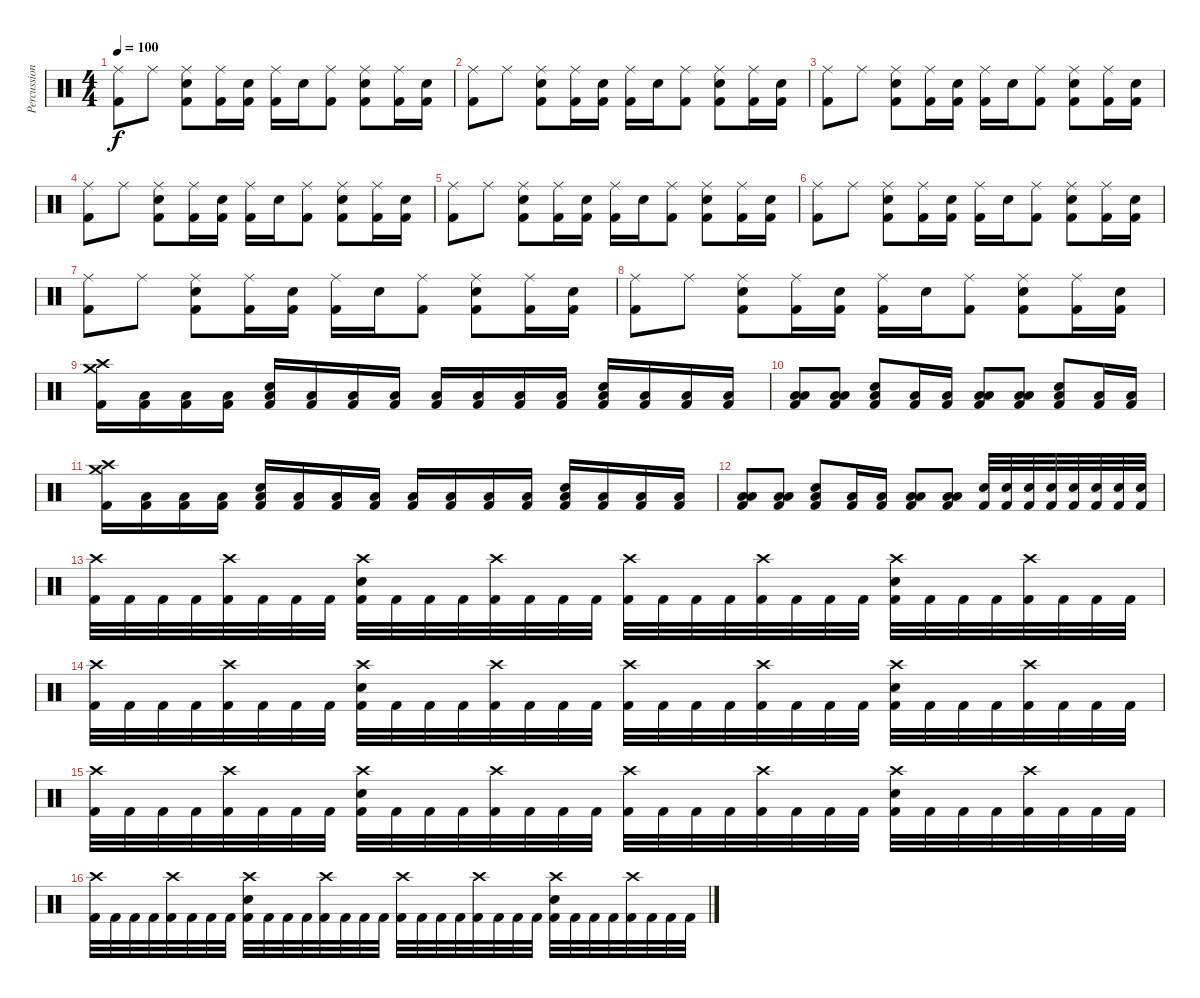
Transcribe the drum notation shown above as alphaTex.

\track ("Percussion" "Percussion") {instrument percussion}
\staff {score}
\articulation defaults
\ts (4 4)
\tempo 100
\clef neutral
\ks c
("Ride (middle)" "Kick (hit) 2").8{dy f} "Ride (middle)".8 ("Electric Snare (hit)" "Ride (middle)" "Kick (hit) 2").8 ("Ride (middle)" "Kick (hit) 2").16 ("Electric Snare (hit)" "Kick (hit) 2").16 ("Ride (middle)" "Kick (hit) 2").16 "Electric Snare (hit)".16 ("Ride (middle)" "Kick (hit) 2").8 ("Electric Snare (hit)" "Ride (middle)" "Kick (hit) 2").8 ("Ride (middle)" "Kick (hit) 2").16 ("Electric Snare (hit)" "Kick (hit) 2").16 |
("Ride (middle)" "Kick (hit) 2").8 "Ride (middle)".8 ("Electric Snare (hit)" "Ride (middle)" "Kick (hit) 2").8 ("Ride (middle)" "Kick (hit) 2").16 ("Electric Snare (hit)" "Kick (hit) 2").16 ("Ride (middle)" "Kick (hit) 2").16 "Electric Snare (hit)".16 ("Ride (middle)" "Kick (hit) 2").8 ("Electric Snare (hit)" "Ride (middle)" "Kick (hit) 2").8 ("Ride (middle)" "Kick (hit) 2").16 ("Electric Snare (hit)" "Kick (hit) 2").16 |
("Ride (middle)" "Kick (hit) 2").8 "Ride (middle)".8 ("Electric Snare (hit)" "Ride (middle)" "Kick (hit) 2").8 ("Ride (middle)" "Kick (hit) 2").16 ("Electric Snare (hit)" "Kick (hit) 2").16 ("Ride (middle)" "Kick (hit) 2").16 "Electric Snare (hit)".16 ("Ride (middle)" "Kick (hit) 2").8 ("Electric Snare (hit)" "Ride (middle)" "Kick (hit) 2").8 ("Ride (middle)" "Kick (hit) 2").16 ("Electric Snare (hit)" "Kick (hit) 2").16 |
("Ride (middle)" "Kick (hit) 2").8 "Ride (middle)".8 ("Electric Snare (hit)" "Ride (middle)" "Kick (hit) 2").8 ("Ride (middle)" "Kick (hit) 2").16 ("Electric Snare (hit)" "Kick (hit) 2").16 ("Ride (middle)" "Kick (hit) 2").16 "Electric Snare (hit)".16 ("Ride (middle)" "Kick (hit) 2").8 ("Electric Snare (hit)" "Ride (middle)" "Kick (hit) 2").8 ("Ride (middle)" "Kick (hit) 2").16 ("Electric Snare (hit)" "Kick (hit) 2").16 |
("Ride (middle)" "Kick (hit) 2").8 "Ride (middle)".8 ("Electric Snare (hit)" "Ride (middle)" "Kick (hit) 2").8 ("Ride (middle)" "Kick (hit) 2").16 ("Electric Snare (hit)" "Kick (hit) 2").16 ("Ride (middle)" "Kick (hit) 2").16 "Electric Snare (hit)".16 ("Ride (middle)" "Kick (hit) 2").8 ("Electric Snare (hit)" "Ride (middle)" "Kick (hit) 2").8 ("Ride (middle)" "Kick (hit) 2").16 ("Electric Snare (hit)" "Kick (hit) 2").16 |
("Ride (middle)" "Kick (hit) 2").8 "Ride (middle)".8 ("Electric Snare (hit)" "Ride (middle)" "Kick (hit) 2").8 ("Ride (middle)" "Kick (hit) 2").16 ("Electric Snare (hit)" "Kick (hit) 2").16 ("Ride (middle)" "Kick (hit) 2").16 "Electric Snare (hit)".16 ("Ride (middle)" "Kick (hit) 2").8 ("Electric Snare (hit)" "Ride (middle)" "Kick (hit) 2").8 ("Ride (middle)" "Kick (hit) 2").16 ("Electric Snare (hit)" "Kick (hit) 2").16 |
("Ride (middle)" "Kick (hit) 2").8 "Ride (middle)".8 ("Electric Snare (hit)" "Ride (middle)" "Kick (hit) 2").8 ("Ride (middle)" "Kick (hit) 2").16 ("Electric Snare (hit)" "Kick (hit) 2").16 ("Ride (middle)" "Kick (hit) 2").16 "Electric Snare (hit)".16 ("Ride (middle)" "Kick (hit) 2").8 ("Electric Snare (hit)" "Ride (middle)" "Kick (hit) 2").8 ("Ride (middle)" "Kick (hit) 2").16 ("Electric Snare (hit)" "Kick (hit) 2").16 |
("Ride (middle)" "Kick (hit) 2").8 "Ride (middle)".8 ("Electric Snare (hit)" "Ride (middle)" "Kick (hit) 2").8 ("Ride (middle)" "Kick (hit) 2").16 ("Electric Snare (hit)" "Kick (hit) 2").16 ("Ride (middle)" "Kick (hit) 2").16 "Electric Snare (hit)".16 ("Ride (middle)" "Kick (hit) 2").8 ("Electric Snare (hit)" "Ride (middle)" "Kick (hit) 2").8 ("Ride (middle)" "Kick (hit) 2").16 ("Electric Snare (hit)" "Kick (hit) 2").16 |
("Crash medium (hit)" "Crash high (hit)" "Kick (hit) 2").16 ("Low Floor Tom (hit)" "Kick (hit) 2").16 ("Low Floor Tom (hit)" "Kick (hit) 2").16 ("Low Floor Tom (hit)" "Kick (hit) 2").16 ("Electric Snare (hit)" "Low Floor Tom (hit)" "Kick (hit) 2").16 ("Low Floor Tom (hit)" "Kick (hit) 2").16 ("Low Floor Tom (hit)" "Kick (hit) 2").16 ("Low Floor Tom (hit)" "Kick (hit) 2").16 ("Low Floor Tom (hit)" "Kick (hit) 2").16 ("Low Floor Tom (hit)" "Kick (hit) 2").16 ("Low Floor Tom (hit)" "Kick (hit) 2").16 ("Low Floor Tom (hit)" "Kick (hit) 2").16 ("Electric Snare (hit)" "Low Floor Tom (hit)" "Kick (hit) 2").16 ("Low Floor Tom (hit)" "Kick (hit) 2").16 ("Low Floor Tom (hit)" "Kick (hit) 2").16 ("Low Floor Tom (hit)" "Kick (hit) 2").16 |
("Low Floor Tom (hit)" "Low Floor Tom (hit)" "Kick (hit) 2").8 ("Low Floor Tom (hit)" "Low Floor Tom (hit)" "Kick (hit) 2").8 ("Electric Snare (hit)" "Low Floor Tom (hit)" "Kick (hit) 2").8 ("Low Floor Tom (hit)" "Kick (hit) 2").16 ("Low Floor Tom (hit)" "Kick (hit) 2").16 ("Low Floor Tom (hit)" "Low Floor Tom (hit)" "Kick (hit) 2").8 ("Low Floor Tom (hit)" "Low Floor Tom (hit)" "Kick (hit) 2").8 ("Electric Snare (hit)" "Low Floor Tom (hit)" "Kick (hit) 2").8 ("Low Floor Tom (hit)" "Kick (hit) 2").16 ("Low Floor Tom (hit)" "Kick (hit) 2").16 |
("Crash medium (hit)" "Crash high (hit)" "Kick (hit) 2").16 ("Low Floor Tom (hit)" "Kick (hit) 2").16 ("Low Floor Tom (hit)" "Kick (hit) 2").16 ("Low Floor Tom (hit)" "Kick (hit) 2").16 ("Electric Snare (hit)" "Low Floor Tom (hit)" "Kick (hit) 2").16 ("Low Floor Tom (hit)" "Kick (hit) 2").16 ("Low Floor Tom (hit)" "Kick (hit) 2").16 ("Low Floor Tom (hit)" "Kick (hit) 2").16 ("Low Floor Tom (hit)" "Kick (hit) 2").16 ("Low Floor Tom (hit)" "Kick (hit) 2").16 ("Low Floor Tom (hit)" "Kick (hit) 2").16 ("Low Floor Tom (hit)" "Kick (hit) 2").16 ("Electric Snare (hit)" "Low Floor Tom (hit)" "Kick (hit) 2").16 ("Low Floor Tom (hit)" "Kick (hit) 2").16 ("Low Floor Tom (hit)" "Kick (hit) 2").16 ("Low Floor Tom (hit)" "Kick (hit) 2").16 |
("Low Floor Tom (hit)" "Low Floor Tom (hit)" "Kick (hit) 2").8 ("Low Floor Tom (hit)" "Low Floor Tom (hit)" "Kick (hit) 2").8 ("Electric Snare (hit)" "Low Floor Tom (hit)" "Kick (hit) 2").8 ("Low Floor Tom (hit)" "Kick (hit) 2").16 ("Low Floor Tom (hit)" "Kick (hit) 2").16 ("Low Floor Tom (hit)" "Low Floor Tom (hit)" "Kick (hit) 2").8 ("Low Floor Tom (hit)" "Low Floor Tom (hit)" "Kick (hit) 2").8 ("Electric Snare (hit)" "Kick (hit) 2").32 ("Electric Snare (hit)" "Kick (hit) 2").32 ("Electric Snare (hit)" "Kick (hit) 2").32 ("Electric Snare (hit)" "Kick (hit) 2").32 ("Electric Snare (hit)" "Kick (hit) 2").32 ("Electric Snare (hit)" "Kick (hit) 2").32 ("Electric Snare (hit)" "Kick (hit) 2").32 ("Electric Snare (hit)" "Kick (hit) 2").32 |
("Crash high (hit)" "Kick (hit) 2").32 "Kick (hit) 2".32 "Kick (hit) 2".32 "Kick (hit) 2".32 ("Crash high (hit)" "Kick (hit) 2").32 "Kick (hit) 2".32 "Kick (hit) 2".32 "Kick (hit) 2".32 ("Electric Snare (hit)" "Crash high (hit)" "Kick (hit) 2").32 "Kick (hit) 2".32 "Kick (hit) 2".32 "Kick (hit) 2".32 ("Crash high (hit)" "Kick (hit) 2").32 "Kick (hit) 2".32 "Kick (hit) 2".32 "Kick (hit) 2".32 ("Crash high (hit)" "Kick (hit) 2").32 "Kick (hit) 2".32 "Kick (hit) 2".32 "Kick (hit) 2".32 ("Crash high (hit)" "Kick (hit) 2").32 "Kick (hit) 2".32 "Kick (hit) 2".32 "Kick (hit) 2".32 ("Electric Snare (hit)" "Crash high (hit)" "Kick (hit) 2").32 "Kick (hit) 2".32 "Kick (hit) 2".32 "Kick (hit) 2".32 ("Crash high (hit)" "Kick (hit) 2").32 "Kick (hit) 2".32 "Kick (hit) 2".32 "Kick (hit) 2".32 |
("Crash high (hit)" "Kick (hit) 2").32 "Kick (hit) 2".32 "Kick (hit) 2".32 "Kick (hit) 2".32 ("Crash high (hit)" "Kick (hit) 2").32 "Kick (hit) 2".32 "Kick (hit) 2".32 "Kick (hit) 2".32 ("Electric Snare (hit)" "Crash high (hit)" "Kick (hit) 2").32 "Kick (hit) 2".32 "Kick (hit) 2".32 "Kick (hit) 2".32 ("Crash high (hit)" "Kick (hit) 2").32 "Kick (hit) 2".32 "Kick (hit) 2".32 "Kick (hit) 2".32 ("Crash high (hit)" "Kick (hit) 2").32 "Kick (hit) 2".32 "Kick (hit) 2".32 "Kick (hit) 2".32 ("Crash high (hit)" "Kick (hit) 2").32 "Kick (hit) 2".32 "Kick (hit) 2".32 "Kick (hit) 2".32 ("Electric Snare (hit)" "Crash high (hit)" "Kick (hit) 2").32 "Kick (hit) 2".32 "Kick (hit) 2".32 "Kick (hit) 2".32 ("Crash high (hit)" "Kick (hit) 2").32 "Kick (hit) 2".32 "Kick (hit) 2".32 "Kick (hit) 2".32 |
("Crash high (hit)" "Kick (hit) 2").32 "Kick (hit) 2".32 "Kick (hit) 2".32 "Kick (hit) 2".32 ("Crash high (hit)" "Kick (hit) 2").32 "Kick (hit) 2".32 "Kick (hit) 2".32 "Kick (hit) 2".32 ("Electric Snare (hit)" "Crash high (hit)" "Kick (hit) 2").32 "Kick (hit) 2".32 "Kick (hit) 2".32 "Kick (hit) 2".32 ("Crash high (hit)" "Kick (hit) 2").32 "Kick (hit) 2".32 "Kick (hit) 2".32 "Kick (hit) 2".32 ("Crash high (hit)" "Kick (hit) 2").32 "Kick (hit) 2".32 "Kick (hit) 2".32 "Kick (hit) 2".32 ("Crash high (hit)" "Kick (hit) 2").32 "Kick (hit) 2".32 "Kick (hit) 2".32 "Kick (hit) 2".32 ("Electric Snare (hit)" "Crash high (hit)" "Kick (hit) 2").32 "Kick (hit) 2".32 "Kick (hit) 2".32 "Kick (hit) 2".32 ("Crash high (hit)" "Kick (hit) 2").32 "Kick (hit) 2".32 "Kick (hit) 2".32 "Kick (hit) 2".32 |
("Crash high (hit)" "Kick (hit) 2").32 "Kick (hit) 2".32 "Kick (hit) 2".32 "Kick (hit) 2".32 ("Crash high (hit)" "Kick (hit) 2").32 "Kick (hit) 2".32 "Kick (hit) 2".32 "Kick (hit) 2".32 ("Electric Snare (hit)" "Crash high (hit)" "Kick (hit) 2").32 "Kick (hit) 2".32 "Kick (hit) 2".32 "Kick (hit) 2".32 ("Crash high (hit)" "Kick (hit) 2").32 "Kick (hit) 2".32 "Kick (hit) 2".32 "Kick (hit) 2".32 ("Crash high (hit)" "Kick (hit) 2").32 "Kick (hit) 2".32 "Kick (hit) 2".32 "Kick (hit) 2".32 ("Crash high (hit)" "Kick (hit) 2").32 "Kick (hit) 2".32 "Kick (hit) 2".32 "Kick (hit) 2".32 ("Electric Snare (hit)" "Crash high (hit)" "Kick (hit) 2").32 "Kick (hit) 2".32 "Kick (hit) 2".32 "Kick (hit) 2".32 ("Crash high (hit)" "Kick (hit) 2").32 "Kick (hit) 2".32 "Kick (hit) 2".32 "Kick (hit) 2".32
